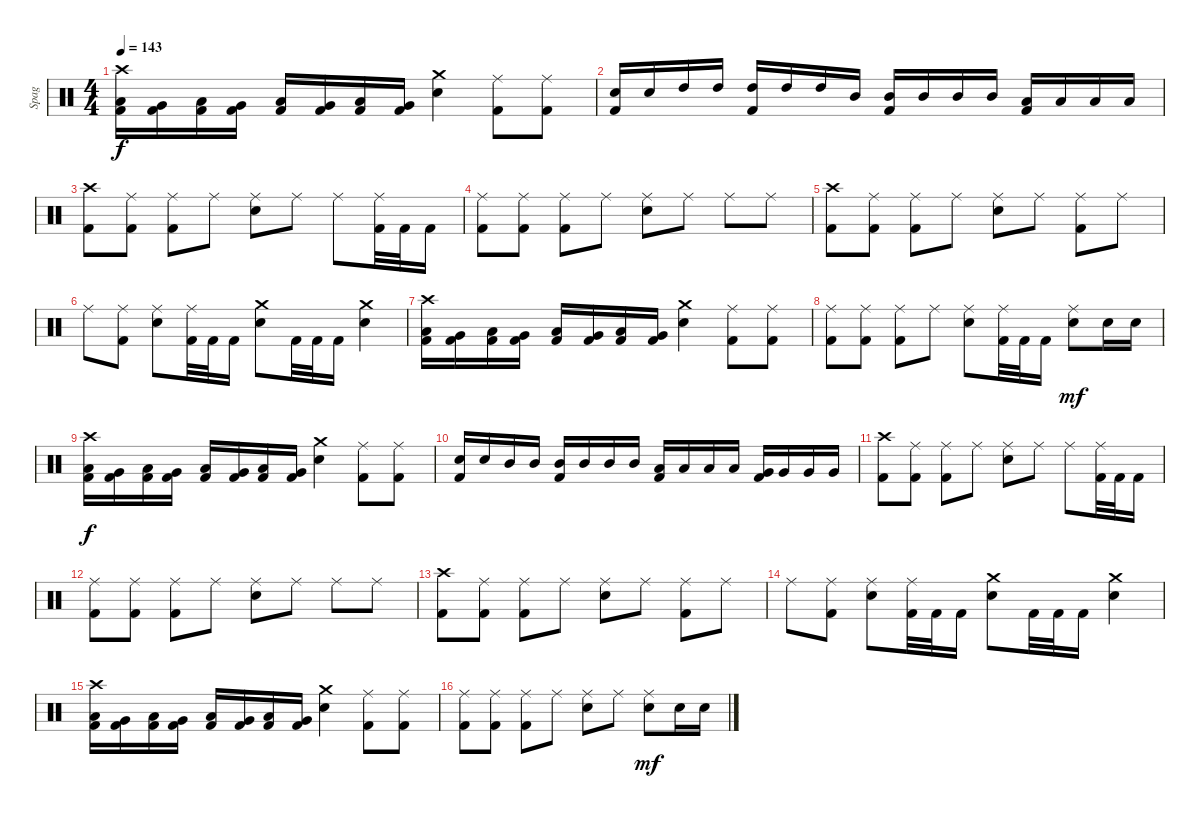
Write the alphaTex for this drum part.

\track ("Spag" "Spag") {instrument percussion}
\staff {score}
\articulation defaults
\ts (4 4)
\tempo 143
\clef neutral
\ks c
("Crash high (hit)" "Low Floor Tom (hit)" "Kick (hit) 2").16{dy f} ("Very Low Tom (hit)" "Kick (hit) 2").16 ("Low Floor Tom (hit)" "Kick (hit) 2").16 ("Very Low Tom (hit)" "Kick (hit) 2").16 ("Low Floor Tom (hit)" "Kick (hit) 2").16 ("Very Low Tom (hit)" "Kick (hit) 2").16 ("Low Floor Tom (hit)" "Kick (hit) 2").16 ("Very Low Tom (hit)" "Kick (hit) 2").16 ("Crash medium (hit)" "Electric Snare (hit)").4 ("Ride (middle)" "Kick (hit) 2").8 ("Ride (middle)" "Kick (hit) 2").8 |
("Electric Snare (hit)" "Kick (hit) 2").16 "Electric Snare (hit)".16 "High Tom (hit)".16 "High Tom (hit)".16 ("High Tom (hit)" "Kick (hit) 2").16 "High Tom (hit)".16 "High Tom (hit)".16 "Mid Tom (hit)".16 ("Mid Tom (hit)" "Kick (hit) 2").16 "Mid Tom (hit)".16 "Mid Tom (hit)".16 "Mid Tom (hit)".16 ("Low Tom (hit)" "Kick (hit) 2").16 "Low Tom (hit)".16 "Low Tom (hit)".16 "Low Tom (hit)".16 |
("Crash high (hit)" "Kick (hit) 2").8 ("Ride (middle)" "Kick (hit) 2").8 ("Ride (middle)" "Kick (hit) 2").8 "Ride (middle)".8 ("Ride (middle)" "Electric Snare (hit)").8 "Ride (middle)".8 "Ride (middle)".8 ("Ride (middle)" "Kick (hit) 2").32 "Kick (hit) 2".32 "Kick (hit) 2".16 |
("Ride (middle)" "Kick (hit) 2").8 ("Ride (middle)" "Kick (hit) 2").8 ("Ride (middle)" "Kick (hit) 2").8 "Ride (middle)".8 ("Ride (middle)" "Electric Snare (hit)").8 "Ride (middle)".8 "Ride (middle)".8 "Ride (middle)".8 |
("Crash high (hit)" "Kick (hit) 2").8 ("Ride (middle)" "Kick (hit) 2").8 ("Ride (middle)" "Kick (hit) 2").8 "Ride (middle)".8 ("Ride (middle)" "Electric Snare (hit)").8 "Ride (middle)".8 ("Ride (middle)" "Kick (hit) 2").8 "Ride (middle)".8 |
"Ride (middle)".8 ("Ride (middle)" "Kick (hit) 2").8 ("Ride (middle)" "Electric Snare (hit)").8 ("Ride (middle)" "Kick (hit) 2").32 "Kick (hit) 2".32 "Kick (hit) 2".16 ("Crash medium (hit)" "Electric Snare (hit)").8 "Kick (hit) 2".32 "Kick (hit) 2".32 "Kick (hit) 2".16 ("Crash medium (hit)" "Electric Snare (hit)").4 |
("Crash high (hit)" "Low Floor Tom (hit)" "Kick (hit) 2").16 ("Very Low Tom (hit)" "Kick (hit) 2").16 ("Low Floor Tom (hit)" "Kick (hit) 2").16 ("Very Low Tom (hit)" "Kick (hit) 2").16 ("Low Floor Tom (hit)" "Kick (hit) 2").16 ("Very Low Tom (hit)" "Kick (hit) 2").16 ("Low Floor Tom (hit)" "Kick (hit) 2").16 ("Very Low Tom (hit)" "Kick (hit) 2").16 ("Crash medium (hit)" "Electric Snare (hit)").4 ("Ride (middle)" "Kick (hit) 2").8 ("Ride (middle)" "Kick (hit) 2").8 |
("Ride (middle)" "Kick (hit) 2").8 ("Ride (middle)" "Kick (hit) 2").8 ("Ride (middle)" "Kick (hit) 2").8 "Ride (middle)".8 ("Ride (middle)" "Electric Snare (hit)").8 ("Ride (middle)" "Kick (hit) 2").32 "Kick (hit) 2".32 "Kick (hit) 2".16 ("Ride (middle)" "Electric Snare (hit)").8{dy mf} "Electric Snare (hit)".16 "Electric Snare (hit)".16 |
("Crash high (hit)" "Low Floor Tom (hit)" "Kick (hit) 2").16{dy f} ("Very Low Tom (hit)" "Kick (hit) 2").16 ("Low Floor Tom (hit)" "Kick (hit) 2").16 ("Very Low Tom (hit)" "Kick (hit) 2").16 ("Low Floor Tom (hit)" "Kick (hit) 2").16 ("Very Low Tom (hit)" "Kick (hit) 2").16 ("Low Floor Tom (hit)" "Kick (hit) 2").16 ("Very Low Tom (hit)" "Kick (hit) 2").16 ("Crash medium (hit)" "Electric Snare (hit)").4 ("Ride (middle)" "Kick (hit) 2").8 ("Ride (middle)" "Kick (hit) 2").8 |
("Electric Snare (hit)" "Kick (hit) 2").16 "Electric Snare (hit)".16 "Mid Tom (hit)".16 "Mid Tom (hit)".16 ("Mid Tom (hit)" "Kick (hit) 2").16 "Mid Tom (hit)".16 "Mid Tom (hit)".16 "Mid Tom (hit)".16 ("Low Tom (hit)" "Kick (hit) 2").16 "Low Tom (hit)".16 "Low Tom (hit)".16 "Low Tom (hit)".16 ("Very Low Tom (hit)" "Kick (hit) 2").16 "Very Low Tom (hit)".16 "Very Low Tom (hit)".16 "Very Low Tom (hit)".16 |
("Crash high (hit)" "Kick (hit) 2").8 ("Ride (middle)" "Kick (hit) 2").8 ("Ride (middle)" "Kick (hit) 2").8 "Ride (middle)".8 ("Ride (middle)" "Electric Snare (hit)").8 "Ride (middle)".8 "Ride (middle)".8 ("Ride (middle)" "Kick (hit) 2").32 "Kick (hit) 2".32 "Kick (hit) 2".16 |
("Ride (middle)" "Kick (hit) 2").8 ("Ride (middle)" "Kick (hit) 2").8 ("Ride (middle)" "Kick (hit) 2").8 "Ride (middle)".8 ("Ride (middle)" "Electric Snare (hit)").8 "Ride (middle)".8 "Ride (middle)".8 "Ride (middle)".8 |
("Crash high (hit)" "Kick (hit) 2").8 ("Ride (middle)" "Kick (hit) 2").8 ("Ride (middle)" "Kick (hit) 2").8 "Ride (middle)".8 ("Ride (middle)" "Electric Snare (hit)").8 "Ride (middle)".8 ("Ride (middle)" "Kick (hit) 2").8 "Ride (middle)".8 |
"Ride (middle)".8 ("Ride (middle)" "Kick (hit) 2").8 ("Ride (middle)" "Electric Snare (hit)").8 ("Ride (middle)" "Kick (hit) 2").32 "Kick (hit) 2".32 "Kick (hit) 2".16 ("Crash medium (hit)" "Electric Snare (hit)").8 "Kick (hit) 2".32 "Kick (hit) 2".32 "Kick (hit) 2".16 ("Crash medium (hit)" "Electric Snare (hit)").4 |
("Crash high (hit)" "Low Floor Tom (hit)" "Kick (hit) 2").16 ("Very Low Tom (hit)" "Kick (hit) 2").16 ("Low Floor Tom (hit)" "Kick (hit) 2").16 ("Very Low Tom (hit)" "Kick (hit) 2").16 ("Low Floor Tom (hit)" "Kick (hit) 2").16 ("Very Low Tom (hit)" "Kick (hit) 2").16 ("Low Floor Tom (hit)" "Kick (hit) 2").16 ("Very Low Tom (hit)" "Kick (hit) 2").16 ("Crash medium (hit)" "Electric Snare (hit)").4 ("Ride (middle)" "Kick (hit) 2").8 ("Ride (middle)" "Kick (hit) 2").8 |
("Ride (middle)" "Kick (hit) 2").8 ("Ride (middle)" "Kick (hit) 2").8 ("Ride (middle)" "Kick (hit) 2").8 "Ride (middle)".8 ("Ride (middle)" "Electric Snare (hit)").8 "Ride (middle)".8 ("Ride (middle)" "Electric Snare (hit)").8{dy mf} "Electric Snare (hit)".16 "Electric Snare (hit)".16
